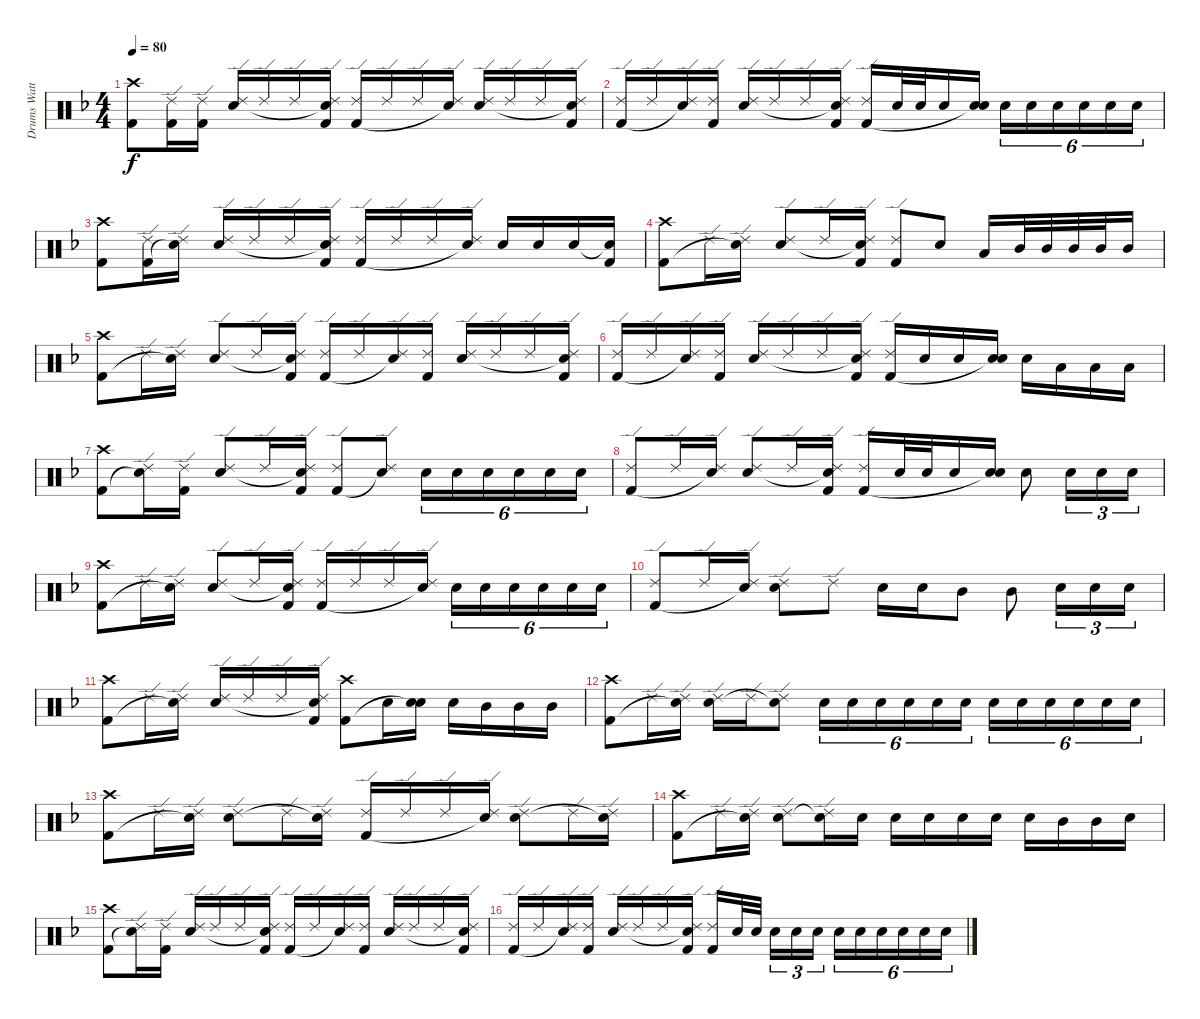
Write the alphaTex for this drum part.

\track ("Drums Watts" "Drums Watt") {instrument percussion}
\staff {score}
\articulation defaults
\ts (4 4)
\tempo 80
\clef neutral
\ks f
("Crash high (hit)" "Kick (hit) 2").8{dy f} ("Ride (edge) 2" "Kick (hit) 2").16 ("Ride (edge) 2" "Kick (hit) 2").16 ("Ride (edge) 2" "Snare (hit) 2").16 "Ride (edge) 2".16 "Ride (edge) 2".16 ("Ride (edge) 2" "Snare (hit)"{t} "Kick (hit) 2").16 ("Ride (edge) 2" "Kick (hit) 2").16 "Ride (edge) 2".16 "Ride (edge) 2".16 ("Ride (edge) 2" "Snare (hit)"{t}).16 ("Ride (edge) 2" "Snare (hit) 2").16 "Ride (edge) 2".16 "Ride (edge) 2".16 ("Ride (edge) 2" "Snare (hit)"{t} "Kick (hit) 2").16 |
("Ride (edge) 2" "Kick (hit) 2").16 "Ride (edge) 2".16 ("Ride (edge) 2" "Snare (hit)"{t}).16 ("Ride (edge) 2" "Kick (hit) 2").16 ("Ride (edge) 2" "Snare (hit) 2").16 "Ride (edge) 2".16 "Ride (edge) 2".16 ("Ride (edge) 2" "Snare (hit)"{t} "Kick (hit) 2").16 ("Ride (edge) 2" "Kick (hit) 2").16 "Snare (hit) 2".32 "Snare (hit) 2".32 "Snare (hit) 2".16 ("Snare (hit) 2" "Snare (hit)"{t}).16 "Snare (hit) 2".16{tu (6 4)} "Snare (hit) 2".16{tu (6 4)} "Snare (hit) 2".16{tu (6 4)} "Snare (hit) 2".16{tu (6 4)} "Snare (hit) 2".16{tu (6 4)} "Snare (hit) 2".16{tu (6 4)} |
("Crash high (hit)" "Kick (hit) 2").8 ("Ride (edge) 2" "Kick (hit) 2").16 ("Ride (edge) 2" "Snare (hit)"{t}).16 ("Ride (edge) 2" "Snare (hit) 2").16 "Ride (edge) 2".16 "Ride (edge) 2".16 ("Ride (edge) 2" "Snare (hit)"{t} "Kick (hit) 2").16 ("Ride (edge) 2" "Kick (hit) 2").16 "Ride (edge) 2".16 "Ride (edge) 2".16 ("Ride (edge) 2" "Snare (hit)"{t}).16 "Snare (hit) 2".16 "Snare (hit) 2".16 "Snare (hit) 2".16 ("Snare (hit)"{t} "Kick (hit) 2").16 |
("Crash high (hit)" "Kick (hit) 2").8 "Ride (edge) 2".16 ("Ride (edge) 2" "Snare (hit)"{t}).16 ("Ride (edge) 2" "Snare (hit) 2").8 "Ride (edge) 2".16 ("Ride (edge) 2" "Snare (hit)"{t} "Kick (hit) 2").16 ("Ride (edge) 2" "Kick (hit) 2").8 "Snare (hit) 2".8 "Low Tom (hit)".16 "Mid Tom (hit)".32 "Mid Tom (hit)".32 "Mid Tom (hit)".32 "Mid Tom (hit)".32 "Mid Tom (hit)".16 |
("Crash high (hit)" "Kick (hit) 2").8 "Ride (edge) 2".16 ("Ride (edge) 2" "Snare (hit)"{t}).16 ("Ride (edge) 2" "Snare (hit) 2").8 "Ride (edge) 2".16 ("Ride (edge) 2" "Snare (hit)"{t} "Kick (hit) 2").16 ("Ride (edge) 2" "Kick (hit) 2").16 "Ride (edge) 2".16 ("Ride (edge) 2" "Snare (hit)"{t}).16 ("Ride (edge) 2" "Kick (hit) 2").16 ("Ride (edge) 2" "Snare (hit) 2").16 "Ride (edge) 2".16 "Ride (edge) 2".16 ("Ride (edge) 2" "Snare (hit)"{t} "Kick (hit) 2").16 |
("Ride (edge) 2" "Kick (hit) 2").16 "Ride (edge) 2".16 ("Ride (edge) 2" "Snare (hit)"{t}).16 ("Ride (edge) 2" "Kick (hit) 2").16 ("Ride (edge) 2" "Snare (hit) 2").16 "Ride (edge) 2".16 "Ride (edge) 2".16 ("Ride (edge) 2" "Snare (hit)"{t} "Kick (hit) 2").16 ("Ride (edge) 2" "Kick (hit) 2").16 "Snare (hit) 2".16 "Snare (hit) 2".16 ("Snare (hit) 2" "Snare (hit)"{t}).16 "Snare (hit) 2".16 "Low Tom (hit)".16 "Low Tom (hit)".16 "Low Tom (hit)".16 |
("Crash high (hit)" "Kick (hit) 2").8 ("Ride (edge) 2" "Snare (hit)"{t}).16 ("Ride (edge) 2" "Kick (hit) 2").16 ("Ride (edge) 2" "Snare (hit) 2").8 "Ride (edge) 2".16 ("Ride (edge) 2" "Snare (hit)"{t} "Kick (hit) 2").16 ("Ride (edge) 2" "Kick (hit) 2").8 ("Ride (edge) 2" "Snare (hit)"{t}).8 "Snare (hit) 2".16{tu (6 4)} "Snare (hit) 2".16{tu (6 4)} "Snare (hit) 2".16{tu (6 4)} "Snare (hit) 2".16{tu (6 4)} "Snare (hit) 2".16{tu (6 4)} "Snare (hit) 2".16{tu (6 4)} |
("Ride (edge) 2" "Kick (hit) 2").8 "Ride (edge) 2".16 ("Ride (edge) 2" "Snare (hit)"{t}).16 ("Ride (edge) 2" "Snare (hit) 2").8 "Ride (edge) 2".16 ("Ride (edge) 2" "Snare (hit)"{t} "Kick (hit) 2").16 ("Ride (edge) 2" "Kick (hit) 2").16 "Snare (hit) 2".32 "Snare (hit) 2".32 "Snare (hit) 2".16 ("Snare (hit) 2" "Snare (hit)"{t}).16 "Snare (hit) 2".8 "Snare (hit) 2".16{tu (3 2)} "Snare (hit) 2".16{tu (3 2)} "Snare (hit) 2".16{tu (3 2)} |
("Crash high (hit)" "Kick (hit) 2").8 "Ride (edge) 2".16 ("Ride (edge) 2" "Snare (hit)"{t}).16 ("Ride (edge) 2" "Snare (hit) 2").8 "Ride (edge) 2".16 ("Ride (edge) 2" "Snare (hit)"{t} "Kick (hit) 2").16 ("Ride (edge) 2" "Kick (hit) 2").16 "Ride (edge) 2".16 "Ride (edge) 2".16 ("Ride (edge) 2" "Snare (hit)"{t}).16 "Snare (hit) 2".16{tu (6 4)} "Snare (hit) 2".16{tu (6 4)} "Snare (hit) 2".16{tu (6 4)} "Snare (hit) 2".16{tu (6 4)} "Snare (hit) 2".16{tu (6 4)} "Snare (hit) 2".16{tu (6 4)} |
("Ride (edge) 2" "Kick (hit) 2").8 "Ride (edge) 2".16 ("Ride (edge) 2" "Snare (hit)"{t}).16 ("Ride (edge) 2" "Snare (hit) 2").8 "Ride (edge) 2".8 "Snare (hit) 2".16 "Snare (hit) 2".16 "Mid Tom (hit)".8 "Mid Tom (hit)".8 "Snare (hit) 2".16{tu (3 2)} "Snare (hit) 2".16{tu (3 2)} "Snare (hit) 2".16{tu (3 2)} |
("Crash high (hit)" "Kick (hit) 2").8 "Ride (edge) 2".16 ("Ride (edge) 2" "Snare (hit)"{t}).16 ("Ride (edge) 2" "Snare (hit) 2").16 "Ride (edge) 2".16 "Ride (edge) 2".16 ("Ride (edge) 2" "Snare (hit)"{t} "Kick (hit) 2").16 ("Crash high (hit)" "Kick (hit) 2").8 "Snare (hit) 2".16 ("Snare (hit) 2" "Snare (hit)"{t}).16 "Snare (hit) 2".16 "Mid Tom (hit)".16 "Mid Tom (hit)".16 "Mid Tom (hit)".16 |
("Crash high (hit)" "Kick (hit) 2").8 "Ride (edge) 2".16 ("Ride (edge) 2" "Snare (hit)"{t}).16 ("Ride (edge) 2" "Snare (hit) 2").16 "Ride (edge) 2".16 ("Ride (edge) 2" "Snare (hit)"{t}).8 "Snare (hit) 2".16{tu (6 4)} "Snare (hit) 2".16{tu (6 4)} "Snare (hit) 2".16{tu (6 4)} "Snare (hit) 2".16{tu (6 4)} "Snare (hit) 2".16{tu (6 4)} "Snare (hit) 2".16{tu (6 4)} "Snare (hit) 2".16{tu (6 4)} "Snare (hit) 2".16{tu (6 4)} "Snare (hit) 2".16{tu (6 4)} "Snare (hit) 2".16{tu (6 4)} "Snare (hit) 2".16{tu (6 4)} "Snare (hit) 2".16{tu (6 4)} |
("Crash high (hit)" "Kick (hit) 2").8 "Ride (edge) 2".16 ("Ride (edge) 2" "Snare (hit)"{t}).16 ("Ride (edge) 2" "Snare (hit) 2").8 "Ride (edge) 2".16 ("Ride (edge) 2" "Snare (hit)"{t}).16 ("Ride (edge) 2" "Kick (hit) 2").16 "Ride (edge) 2".16 "Ride (edge) 2".16 ("Ride (edge) 2" "Snare (hit)"{t}).16 ("Ride (edge) 2" "Snare (hit) 2").8 "Ride (edge) 2".16 ("Ride (edge) 2" "Snare (hit)"{t}).16 |
("Crash high (hit)" "Kick (hit) 2").8 "Ride (edge) 2".16 ("Ride (edge) 2" "Snare (hit)"{t}).16 ("Ride (edge) 2" "Snare (hit) 2").8 ("Ride (edge) 2" "Snare (hit)"{t}).16 "Snare (hit) 2".16 "Snare (hit) 2".16 "Snare (hit) 2".16 "Snare (hit) 2".16 "Snare (hit) 2".16 "Snare (hit) 2".16 "Mid Tom (hit)".16 "Mid Tom (hit)".16 "Snare (hit) 2".16 |
("Crash high (hit)" "Kick (hit) 2").8 ("Ride (edge) 2" "Snare (hit)"{t}).16 ("Ride (edge) 2" "Kick (hit) 2").16 ("Ride (edge) 2" "Snare (hit) 2").16 "Ride (edge) 2".16 "Ride (edge) 2".16 ("Ride (edge) 2" "Snare (hit)"{t} "Kick (hit) 2").16 ("Ride (edge) 2" "Kick (hit) 2").16 "Ride (edge) 2".16 ("Ride (edge) 2" "Snare (hit)"{t}).16 ("Ride (edge) 2" "Kick (hit) 2").16 ("Ride (edge) 2" "Snare (hit) 2").16 "Ride (edge) 2".16 "Ride (edge) 2".16 ("Ride (edge) 2" "Snare (hit)"{t} "Kick (hit) 2").16 |
("Ride (edge) 2" "Kick (hit) 2").16 "Ride (edge) 2".16 ("Ride (edge) 2" "Snare (hit)"{t}).16 ("Ride (edge) 2" "Kick (hit) 2").16 ("Ride (edge) 2" "Snare (hit) 2").16 "Ride (edge) 2".16 "Ride (edge) 2".16 ("Ride (edge) 2" "Snare (hit)"{t} "Kick (hit) 2").16 ("Ride (edge) 2" "Kick (hit) 2").16 "Snare (hit) 2".32 "Snare (hit) 2".32 "Snare (hit) 2".16{tu (3 2)} "Snare (hit) 2".16{tu (3 2)} "Snare (hit) 2".16{tu (3 2)} "Snare (hit) 2".16{tu (6 4)} "Snare (hit) 2".16{tu (6 4)} "Snare (hit) 2".16{tu (6 4)} "Snare (hit) 2".16{tu (6 4)} "Snare (hit) 2".16{tu (6 4)} "Snare (hit) 2".16{tu (6 4)}
